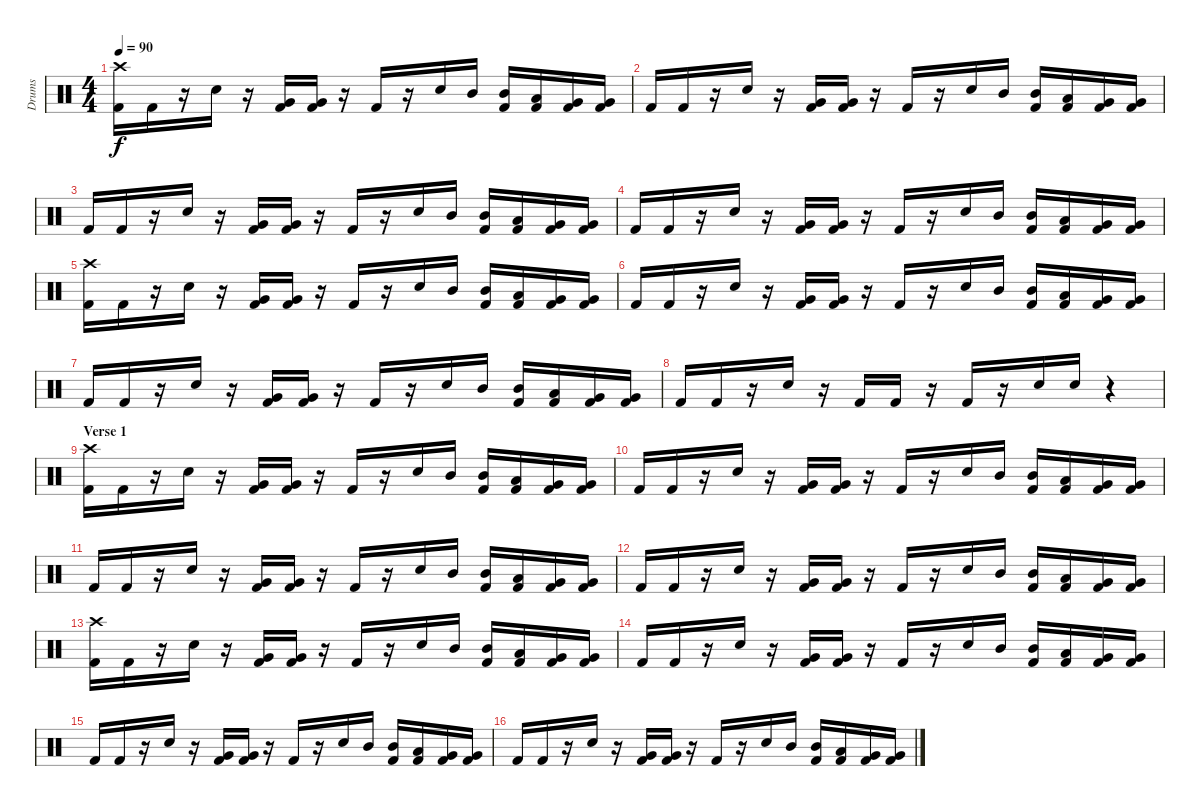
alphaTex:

\track ("Drums" "Drums") {instrument percussion}
\staff {score}
\articulation defaults
\ts (4 4)
\tempo 90
\clef neutral
\ks c
("Kick (hit) 2" "Crash high (hit)").16{dy f} "Kick (hit) 2".16 r.16 "Snare (hit) 2".16 r.16 ("Kick (hit) 2" "Very Low Tom (hit)").16 ("Kick (hit) 2" "Very Low Tom (hit)").16 r.16 "Kick (hit) 2".16 r.16 "Snare (hit) 2".16 "Mid Tom (hit)".16 ("Kick (hit) 2" "Mid Tom (hit)").16 ("Kick (hit) 2" "Low Tom (hit)").16 ("Kick (hit) 2" "Very Low Tom (hit)").16 ("Kick (hit) 2" "Very Low Tom (hit)").16 |
"Kick (hit) 2".16 "Kick (hit) 2".16 r.16 "Snare (hit) 2".16 r.16 ("Kick (hit) 2" "Very Low Tom (hit)").16 ("Kick (hit) 2" "Very Low Tom (hit)").16 r.16 "Kick (hit) 2".16 r.16 "Snare (hit) 2".16 "Mid Tom (hit)".16 ("Kick (hit) 2" "Mid Tom (hit)").16 ("Kick (hit) 2" "Low Tom (hit)").16 ("Kick (hit) 2" "Very Low Tom (hit)").16 ("Kick (hit) 2" "Very Low Tom (hit)").16 |
"Kick (hit) 2".16 "Kick (hit) 2".16 r.16 "Snare (hit) 2".16 r.16 ("Kick (hit) 2" "Very Low Tom (hit)").16 ("Kick (hit) 2" "Very Low Tom (hit)").16 r.16 "Kick (hit) 2".16 r.16 "Snare (hit) 2".16 "Mid Tom (hit)".16 ("Kick (hit) 2" "Mid Tom (hit)").16 ("Kick (hit) 2" "Low Tom (hit)").16 ("Kick (hit) 2" "Very Low Tom (hit)").16 ("Kick (hit) 2" "Very Low Tom (hit)").16 |
"Kick (hit) 2".16 "Kick (hit) 2".16 r.16 "Snare (hit) 2".16 r.16 ("Kick (hit) 2" "Very Low Tom (hit)").16 ("Kick (hit) 2" "Very Low Tom (hit)").16 r.16 "Kick (hit) 2".16 r.16 "Snare (hit) 2".16 "Mid Tom (hit)".16 ("Kick (hit) 2" "Mid Tom (hit)").16 ("Kick (hit) 2" "Low Tom (hit)").16 ("Kick (hit) 2" "Very Low Tom (hit)").16 ("Kick (hit) 2" "Very Low Tom (hit)").16 |
("Kick (hit) 2" "Crash high (hit)").16 "Kick (hit) 2".16 r.16 "Snare (hit) 2".16 r.16 ("Kick (hit) 2" "Very Low Tom (hit)").16 ("Kick (hit) 2" "Very Low Tom (hit)").16 r.16 "Kick (hit) 2".16 r.16 "Snare (hit) 2".16 "Mid Tom (hit)".16 ("Kick (hit) 2" "Mid Tom (hit)").16 ("Kick (hit) 2" "Low Tom (hit)").16 ("Kick (hit) 2" "Very Low Tom (hit)").16 ("Kick (hit) 2" "Very Low Tom (hit)").16 |
"Kick (hit) 2".16 "Kick (hit) 2".16 r.16 "Snare (hit) 2".16 r.16 ("Kick (hit) 2" "Very Low Tom (hit)").16 ("Kick (hit) 2" "Very Low Tom (hit)").16 r.16 "Kick (hit) 2".16 r.16 "Snare (hit) 2".16 "Mid Tom (hit)".16 ("Kick (hit) 2" "Mid Tom (hit)").16 ("Kick (hit) 2" "Low Tom (hit)").16 ("Kick (hit) 2" "Very Low Tom (hit)").16 ("Kick (hit) 2" "Very Low Tom (hit)").16 |
"Kick (hit) 2".16 "Kick (hit) 2".16 r.16 "Snare (hit) 2".16 r.16 ("Kick (hit) 2" "Very Low Tom (hit)").16 ("Kick (hit) 2" "Very Low Tom (hit)").16 r.16 "Kick (hit) 2".16 r.16 "Snare (hit) 2".16 "Mid Tom (hit)".16 ("Kick (hit) 2" "Mid Tom (hit)").16 ("Kick (hit) 2" "Low Tom (hit)").16 ("Kick (hit) 2" "Very Low Tom (hit)").16 ("Kick (hit) 2" "Very Low Tom (hit)").16 |
"Kick (hit) 2".16 "Kick (hit) 2".16 r.16 "Snare (hit) 2".16 r.16 "Kick (hit) 2".16 "Kick (hit) 2".16 r.16 "Kick (hit) 2".16 r.16 "Snare (hit) 2".16 "Snare (hit) 2".16 r.4 |
\section ("" "Verse 1")
("Kick (hit) 2" "Crash high (hit)").16 "Kick (hit) 2".16 r.16 "Snare (hit) 2".16 r.16 ("Kick (hit) 2" "Very Low Tom (hit)").16 ("Kick (hit) 2" "Very Low Tom (hit)").16 r.16 "Kick (hit) 2".16 r.16 "Snare (hit) 2".16 "Mid Tom (hit)".16 ("Kick (hit) 2" "Mid Tom (hit)").16 ("Kick (hit) 2" "Low Tom (hit)").16 ("Kick (hit) 2" "Very Low Tom (hit)").16 ("Kick (hit) 2" "Very Low Tom (hit)").16 |
"Kick (hit) 2".16 "Kick (hit) 2".16 r.16 "Snare (hit) 2".16 r.16 ("Kick (hit) 2" "Very Low Tom (hit)").16 ("Kick (hit) 2" "Very Low Tom (hit)").16 r.16 "Kick (hit) 2".16 r.16 "Snare (hit) 2".16 "Mid Tom (hit)".16 ("Kick (hit) 2" "Mid Tom (hit)").16 ("Kick (hit) 2" "Low Tom (hit)").16 ("Kick (hit) 2" "Very Low Tom (hit)").16 ("Kick (hit) 2" "Very Low Tom (hit)").16 |
"Kick (hit) 2".16 "Kick (hit) 2".16 r.16 "Snare (hit) 2".16 r.16 ("Kick (hit) 2" "Very Low Tom (hit)").16 ("Kick (hit) 2" "Very Low Tom (hit)").16 r.16 "Kick (hit) 2".16 r.16 "Snare (hit) 2".16 "Mid Tom (hit)".16 ("Kick (hit) 2" "Mid Tom (hit)").16 ("Kick (hit) 2" "Low Tom (hit)").16 ("Kick (hit) 2" "Very Low Tom (hit)").16 ("Kick (hit) 2" "Very Low Tom (hit)").16 |
"Kick (hit) 2".16 "Kick (hit) 2".16 r.16 "Snare (hit) 2".16 r.16 ("Kick (hit) 2" "Very Low Tom (hit)").16 ("Kick (hit) 2" "Very Low Tom (hit)").16 r.16 "Kick (hit) 2".16 r.16 "Snare (hit) 2".16 "Mid Tom (hit)".16 ("Kick (hit) 2" "Mid Tom (hit)").16 ("Kick (hit) 2" "Low Tom (hit)").16 ("Kick (hit) 2" "Very Low Tom (hit)").16 ("Kick (hit) 2" "Very Low Tom (hit)").16 |
("Kick (hit) 2" "Crash high (hit)").16 "Kick (hit) 2".16 r.16 "Snare (hit) 2".16 r.16 ("Kick (hit) 2" "Very Low Tom (hit)").16 ("Kick (hit) 2" "Very Low Tom (hit)").16 r.16 "Kick (hit) 2".16 r.16 "Snare (hit) 2".16 "Mid Tom (hit)".16 ("Kick (hit) 2" "Mid Tom (hit)").16 ("Kick (hit) 2" "Low Tom (hit)").16 ("Kick (hit) 2" "Very Low Tom (hit)").16 ("Kick (hit) 2" "Very Low Tom (hit)").16 |
"Kick (hit) 2".16 "Kick (hit) 2".16 r.16 "Snare (hit) 2".16 r.16 ("Kick (hit) 2" "Very Low Tom (hit)").16 ("Kick (hit) 2" "Very Low Tom (hit)").16 r.16 "Kick (hit) 2".16 r.16 "Snare (hit) 2".16 "Mid Tom (hit)".16 ("Kick (hit) 2" "Mid Tom (hit)").16 ("Kick (hit) 2" "Low Tom (hit)").16 ("Kick (hit) 2" "Very Low Tom (hit)").16 ("Kick (hit) 2" "Very Low Tom (hit)").16 |
"Kick (hit) 2".16 "Kick (hit) 2".16 r.16 "Snare (hit) 2".16 r.16 ("Kick (hit) 2" "Very Low Tom (hit)").16 ("Kick (hit) 2" "Very Low Tom (hit)").16 r.16 "Kick (hit) 2".16 r.16 "Snare (hit) 2".16 "Mid Tom (hit)".16 ("Kick (hit) 2" "Mid Tom (hit)").16 ("Kick (hit) 2" "Low Tom (hit)").16 ("Kick (hit) 2" "Very Low Tom (hit)").16 ("Kick (hit) 2" "Very Low Tom (hit)").16 |
"Kick (hit) 2".16 "Kick (hit) 2".16 r.16 "Snare (hit) 2".16 r.16 ("Kick (hit) 2" "Very Low Tom (hit)").16 ("Kick (hit) 2" "Very Low Tom (hit)").16 r.16 "Kick (hit) 2".16 r.16 "Snare (hit) 2".16 "Mid Tom (hit)".16 ("Kick (hit) 2" "Mid Tom (hit)").16 ("Kick (hit) 2" "Low Tom (hit)").16 ("Kick (hit) 2" "Very Low Tom (hit)").16 ("Kick (hit) 2" "Very Low Tom (hit)").16
